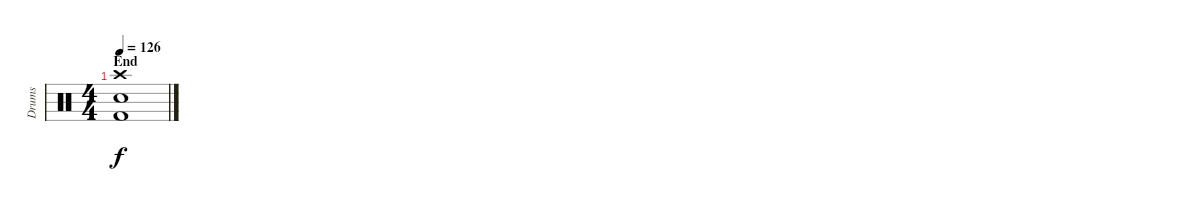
\track ("Drums" "Drums") {instrument percussion}
\staff {score}
\articulation defaults
\ts (4 4)
\section ("" "End")
\tempo 126
\clef neutral
\ks c
("Crash high (hit)" "Kick (hit) 2" "Electric Snare (hit)").1{dy f}
